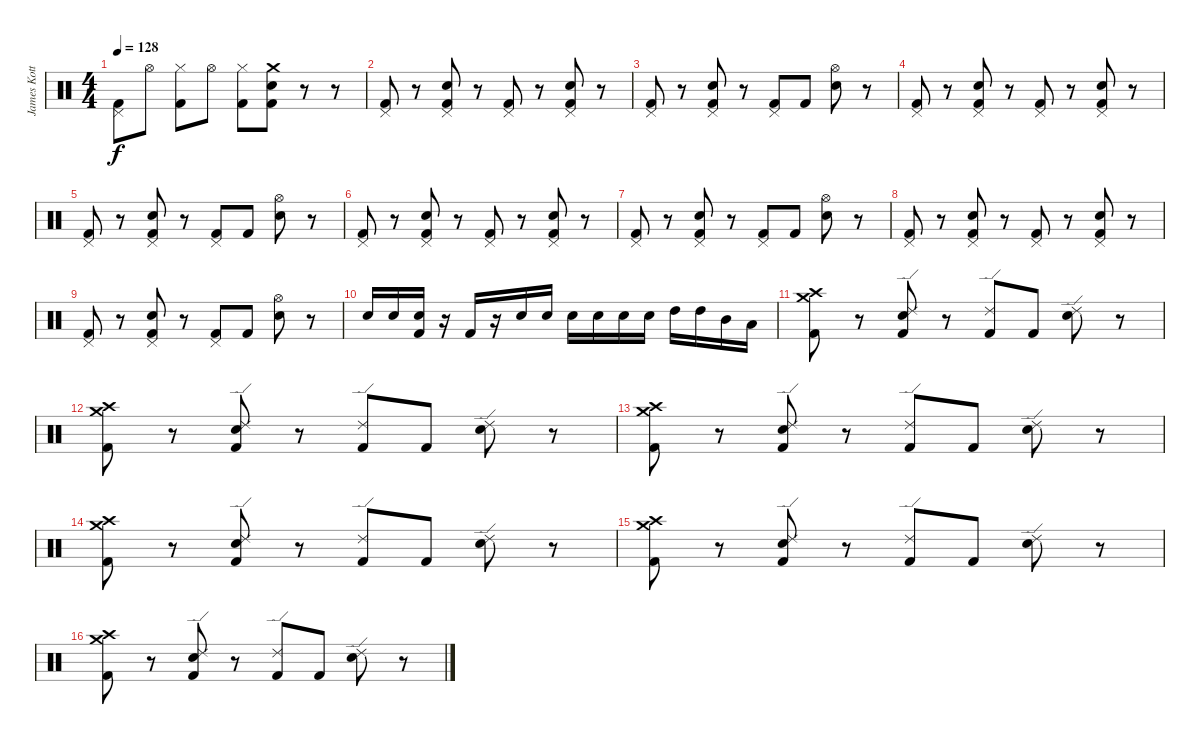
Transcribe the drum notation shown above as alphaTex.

\track ("James Kottak" "James Kott") {instrument percussion}
\staff {score}
\articulation defaults
\ts (4 4)
\tempo 128
\clef neutral
\ks c
("Pedal Hi-Hat (hit)" "Kick (hit) 2").8{dy f} "Hi-Hat (open)".8 ("Hi-Hat (closed)" "Kick (hit) 2").8 "Hi-Hat (open)".8 ("Hi-Hat (closed)" "Kick (hit) 2").8 ("Crash medium (hit)" "Electric Snare (hit)" "Kick (hit) 2").8 r.8 r.8 |
("Pedal Hi-Hat (hit)" "Kick (hit) 2").8 r.8 ("Pedal Hi-Hat (hit)" "Electric Snare (hit)" "Kick (hit) 2").8 r.8 ("Pedal Hi-Hat (hit)" "Kick (hit) 2").8 r.8 ("Pedal Hi-Hat (hit)" "Electric Snare (hit)" "Kick (hit) 2").8 r.8 |
("Pedal Hi-Hat (hit)" "Kick (hit) 2").8 r.8 ("Pedal Hi-Hat (hit)" "Electric Snare (hit)" "Kick (hit) 2").8 r.8 ("Pedal Hi-Hat (hit)" "Kick (hit) 2").8 "Kick (hit) 2".8 ("Hi-Hat (open)" "Electric Snare (hit)").8 r.8 |
("Pedal Hi-Hat (hit)" "Kick (hit) 2").8 r.8 ("Pedal Hi-Hat (hit)" "Electric Snare (hit)" "Kick (hit) 2").8 r.8 ("Pedal Hi-Hat (hit)" "Kick (hit) 2").8 r.8 ("Pedal Hi-Hat (hit)" "Electric Snare (hit)" "Kick (hit) 2").8 r.8 |
("Pedal Hi-Hat (hit)" "Kick (hit) 2").8 r.8 ("Pedal Hi-Hat (hit)" "Electric Snare (hit)" "Kick (hit) 2").8 r.8 ("Pedal Hi-Hat (hit)" "Kick (hit) 2").8 "Kick (hit) 2".8 ("Hi-Hat (open)" "Electric Snare (hit)").8 r.8 |
("Pedal Hi-Hat (hit)" "Kick (hit) 2").8 r.8 ("Pedal Hi-Hat (hit)" "Electric Snare (hit)" "Kick (hit) 2").8 r.8 ("Pedal Hi-Hat (hit)" "Kick (hit) 2").8 r.8 ("Pedal Hi-Hat (hit)" "Electric Snare (hit)" "Kick (hit) 2").8 r.8 |
("Pedal Hi-Hat (hit)" "Kick (hit) 2").8 r.8 ("Pedal Hi-Hat (hit)" "Electric Snare (hit)" "Kick (hit) 2").8 r.8 ("Pedal Hi-Hat (hit)" "Kick (hit) 2").8 "Kick (hit) 2".8 ("Hi-Hat (open)" "Electric Snare (hit)").8 r.8 |
("Pedal Hi-Hat (hit)" "Kick (hit) 2").8 r.8 ("Pedal Hi-Hat (hit)" "Electric Snare (hit)" "Kick (hit) 2").8 r.8 ("Pedal Hi-Hat (hit)" "Kick (hit) 2").8 r.8 ("Pedal Hi-Hat (hit)" "Electric Snare (hit)" "Kick (hit) 2").8 r.8 |
("Pedal Hi-Hat (hit)" "Kick (hit) 2").8 r.8 ("Pedal Hi-Hat (hit)" "Electric Snare (hit)" "Kick (hit) 2").8 r.8 ("Pedal Hi-Hat (hit)" "Kick (hit) 2").8 "Kick (hit) 2".8 ("Hi-Hat (open)" "Electric Snare (hit)").8 r.8 |
"Electric Snare (hit)".16 "Electric Snare (hit)".16 ("Electric Snare (hit)" "Kick (hit) 2").16 r.16 "Kick (hit) 2".16 r.16 "Electric Snare (hit)".16 "Electric Snare (hit)".16 "Electric Snare (hit)".16 "Electric Snare (hit)".16 "Electric Snare (hit)".16 "Electric Snare (hit)".16 "High Tom (hit)".16 "High Tom (hit)".16 "Mid Tom (hit)".16 "Low Tom (hit)".16 |
("Crash high (hit)" "Crash medium (hit)" "Kick (hit) 2").8 r.8 ("Ride (edge) 2" "Electric Snare (hit)" "Kick (hit) 2").8 r.8 ("Ride (edge) 2" "Kick (hit) 2").8 "Kick (hit) 2".8 ("Ride (edge) 2" "Electric Snare (hit)").8 r.8 |
("Crash high (hit)" "Crash medium (hit)" "Kick (hit) 2").8 r.8 ("Ride (edge) 2" "Electric Snare (hit)" "Kick (hit) 2").8 r.8 ("Ride (edge) 2" "Kick (hit) 2").8 "Kick (hit) 2".8 ("Ride (edge) 2" "Electric Snare (hit)").8 r.8 |
("Crash high (hit)" "Crash medium (hit)" "Kick (hit) 2").8 r.8 ("Ride (edge) 2" "Electric Snare (hit)" "Kick (hit) 2").8 r.8 ("Ride (edge) 2" "Kick (hit) 2").8 "Kick (hit) 2".8 ("Ride (edge) 2" "Electric Snare (hit)").8 r.8 |
("Crash high (hit)" "Crash medium (hit)" "Kick (hit) 2").8 r.8 ("Ride (edge) 2" "Electric Snare (hit)" "Kick (hit) 2").8 r.8 ("Ride (edge) 2" "Kick (hit) 2").8 "Kick (hit) 2".8 ("Ride (edge) 2" "Electric Snare (hit)").8 r.8 |
("Crash high (hit)" "Crash medium (hit)" "Kick (hit) 2").8 r.8 ("Ride (edge) 2" "Electric Snare (hit)" "Kick (hit) 2").8 r.8 ("Ride (edge) 2" "Kick (hit) 2").8 "Kick (hit) 2".8 ("Ride (edge) 2" "Electric Snare (hit)").8 r.8 |
("Crash high (hit)" "Crash medium (hit)" "Kick (hit) 2").8 r.8 ("Ride (edge) 2" "Electric Snare (hit)" "Kick (hit) 2").8 r.8 ("Ride (edge) 2" "Kick (hit) 2").8 "Kick (hit) 2".8 ("Ride (edge) 2" "Electric Snare (hit)").8 r.8
